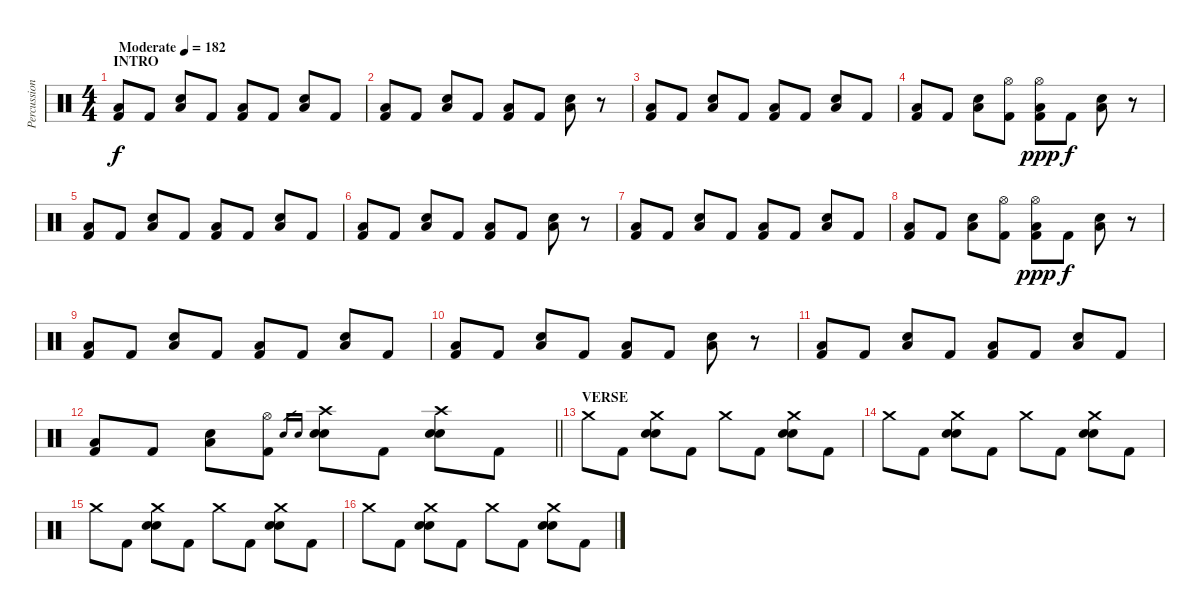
\track ("Percussion" "Percussion") {instrument percussion}
\staff {score}
\articulation defaults
\ts (4 4)
\section ("" "INTRO")
\tempo (182 "Moderate")
\clef neutral
\ks c
("Low Floor Tom (hit)" "Kick (hit) 2").8{dy f} "Kick (hit) 2".8 ("Snare (hit) 2" "Low Floor Tom (hit)").8 "Kick (hit) 2".8 ("Low Floor Tom (hit)" "Kick (hit) 2").8 "Kick (hit) 2".8 ("Snare (hit) 2" "Low Floor Tom (hit)").8 "Kick (hit) 2".8 |
("Low Floor Tom (hit)" "Kick (hit) 2").8 "Kick (hit) 2".8 ("Snare (hit) 2" "Low Floor Tom (hit)").8 "Kick (hit) 2".8 ("Low Floor Tom (hit)" "Kick (hit) 2").8 "Kick (hit) 2".8 ("Snare (hit) 2" "Low Floor Tom (hit)").8 r.8 |
("Low Floor Tom (hit)" "Kick (hit) 2").8 "Kick (hit) 2".8 ("Snare (hit) 2" "Low Floor Tom (hit)").8 "Kick (hit) 2".8 ("Low Floor Tom (hit)" "Kick (hit) 2").8 "Kick (hit) 2".8 ("Snare (hit) 2" "Low Floor Tom (hit)").8 "Kick (hit) 2".8 |
("Low Floor Tom (hit)" "Kick (hit) 2").8 "Kick (hit) 2".8 ("Snare (hit) 2" "Low Floor Tom (hit)").8 ("Hi-Hat (open)" "Kick (hit) 2").8 ("Hi-Hat (open)" "Low Floor Tom (hit)" "Kick (hit) 2").8{dy ppp} "Kick (hit) 2".8{dy f} ("Snare (hit) 2" "Low Floor Tom (hit)").8 r.8 |
("Low Floor Tom (hit)" "Kick (hit) 2").8 "Kick (hit) 2".8 ("Snare (hit) 2" "Low Floor Tom (hit)").8 "Kick (hit) 2".8 ("Low Floor Tom (hit)" "Kick (hit) 2").8 "Kick (hit) 2".8 ("Snare (hit) 2" "Low Floor Tom (hit)").8 "Kick (hit) 2".8 |
("Low Floor Tom (hit)" "Kick (hit) 2").8 "Kick (hit) 2".8 ("Snare (hit) 2" "Low Floor Tom (hit)").8 "Kick (hit) 2".8 ("Low Floor Tom (hit)" "Kick (hit) 2").8 "Kick (hit) 2".8 ("Snare (hit) 2" "Low Floor Tom (hit)").8 r.8 |
("Low Floor Tom (hit)" "Kick (hit) 2").8 "Kick (hit) 2".8 ("Snare (hit) 2" "Low Floor Tom (hit)").8 "Kick (hit) 2".8 ("Low Floor Tom (hit)" "Kick (hit) 2").8 "Kick (hit) 2".8 ("Snare (hit) 2" "Low Floor Tom (hit)").8 "Kick (hit) 2".8 |
("Low Floor Tom (hit)" "Kick (hit) 2").8 "Kick (hit) 2".8 ("Snare (hit) 2" "Low Floor Tom (hit)").8 ("Hi-Hat (open)" "Kick (hit) 2").8 ("Hi-Hat (open)" "Low Floor Tom (hit)" "Kick (hit) 2").8{dy ppp} "Kick (hit) 2".8{dy f} ("Snare (hit) 2" "Low Floor Tom (hit)").8 r.8 |
("Low Floor Tom (hit)" "Kick (hit) 2").8 "Kick (hit) 2".8 ("Snare (hit) 2" "Low Floor Tom (hit)").8 "Kick (hit) 2".8 ("Low Floor Tom (hit)" "Kick (hit) 2").8 "Kick (hit) 2".8 ("Snare (hit) 2" "Low Floor Tom (hit)").8 "Kick (hit) 2".8 |
("Low Floor Tom (hit)" "Kick (hit) 2").8 "Kick (hit) 2".8 ("Snare (hit) 2" "Low Floor Tom (hit)").8 "Kick (hit) 2".8 ("Low Floor Tom (hit)" "Kick (hit) 2").8 "Kick (hit) 2".8 ("Snare (hit) 2" "Low Floor Tom (hit)").8 r.8 |
("Low Floor Tom (hit)" "Kick (hit) 2").8 "Kick (hit) 2".8 ("Snare (hit) 2" "Low Floor Tom (hit)").8 "Kick (hit) 2".8 ("Low Floor Tom (hit)" "Kick (hit) 2").8 "Kick (hit) 2".8 ("Snare (hit) 2" "Low Floor Tom (hit)").8 "Kick (hit) 2".8 |
\barLineRight lightlight
("Low Floor Tom (hit)" "Kick (hit) 2").8 "Kick (hit) 2".8 ("Snare (hit) 2" "Low Floor Tom (hit)").8 ("Hi-Hat (open)" "Kick (hit) 2").8 "Snare (hit) 2".16{gr} "Electric Snare (hit)".16{gr} ("Crash high (hit)" "Snare (hit) 2" "Electric Snare (hit)").8 "Kick (hit) 2".8 ("Crash high (hit)" "Snare (hit) 2" "Electric Snare (hit)").8 "Kick (hit) 2".8 |
\section ("" "VERSE")
"Crash medium (hit)".8 "Kick (hit) 2".8 ("Crash medium (hit)" "Snare (hit) 2" "Electric Snare (hit)").8 "Kick (hit) 2".8 "Crash medium (hit)".8 "Kick (hit) 2".8 ("Crash medium (hit)" "Snare (hit) 2" "Electric Snare (hit)").8 "Kick (hit) 2".8 |
"Crash medium (hit)".8 "Kick (hit) 2".8 ("Crash medium (hit)" "Snare (hit) 2" "Electric Snare (hit)").8 "Kick (hit) 2".8 "Crash medium (hit)".8 "Kick (hit) 2".8 ("Crash medium (hit)" "Snare (hit) 2" "Electric Snare (hit)").8 "Kick (hit) 2".8 |
"Crash medium (hit)".8 "Kick (hit) 2".8 ("Crash medium (hit)" "Snare (hit) 2" "Electric Snare (hit)").8 "Kick (hit) 2".8 "Crash medium (hit)".8 "Kick (hit) 2".8 ("Crash medium (hit)" "Snare (hit) 2" "Electric Snare (hit)").8 "Kick (hit) 2".8 |
"Crash medium (hit)".8 "Kick (hit) 2".8 ("Crash medium (hit)" "Snare (hit) 2" "Electric Snare (hit)").8 "Kick (hit) 2".8 "Crash medium (hit)".8 "Kick (hit) 2".8 ("Crash medium (hit)" "Snare (hit) 2" "Electric Snare (hit)").8 "Kick (hit) 2".8
